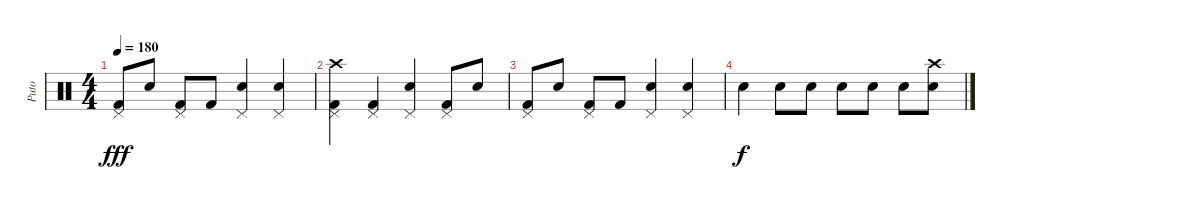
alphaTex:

\track ("Puto" "Puto") {instrument percussion}
\staff {score}
\articulation defaults
\ts (4 4)
\tempo 180
\clef neutral
\ks c
("Kick (hit) 2" "Pedal Hi-Hat (hit)").8{dy fff} "Snare (hit) 2".8 ("Kick (hit) 2" "Pedal Hi-Hat (hit)").8 "Kick (hit) 2".8 ("Snare (hit) 2" "Pedal Hi-Hat (hit)").4 ("Snare (hit) 2" "Pedal Hi-Hat (hit)").4 |
("Kick (hit) 2" "Crash high (hit)" "Pedal Hi-Hat (hit)").4 ("Kick (hit) 2" "Pedal Hi-Hat (hit)").4 ("Snare (hit) 2" "Pedal Hi-Hat (hit)").4 ("Kick (hit) 2" "Pedal Hi-Hat (hit)").8 "Snare (hit) 2".8 |
("Kick (hit) 2" "Pedal Hi-Hat (hit)").8 "Snare (hit) 2".8 ("Kick (hit) 2" "Pedal Hi-Hat (hit)").8 "Kick (hit) 2".8 ("Snare (hit) 2" "Pedal Hi-Hat (hit)").4 ("Snare (hit) 2" "Pedal Hi-Hat (hit)").4 |
"Snare (hit) 2".4{dy f} "Snare (hit) 2".8 "Snare (hit) 2".8 "Snare (hit) 2".8 "Snare (hit) 2".8 "Snare (hit) 2".8 ("Crash high (hit)" "Snare (hit) 2").8
